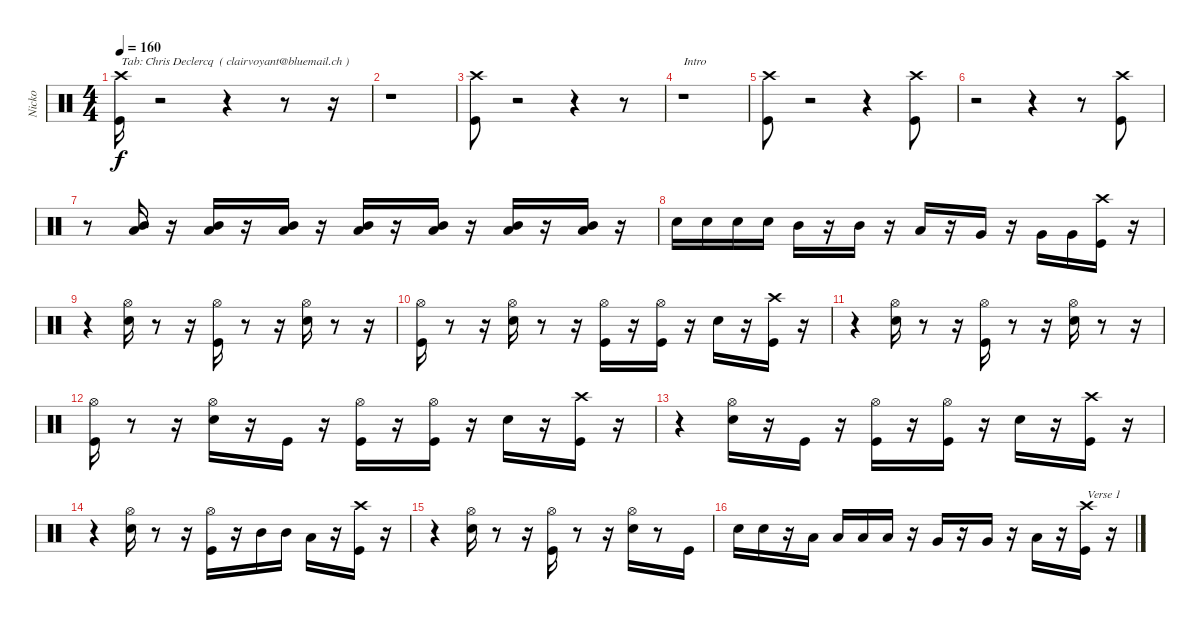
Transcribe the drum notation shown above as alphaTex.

\track ("Nicko" "Nicko") {instrument percussion}
\staff {score}
\articulation defaults
\ts (4 4)
\tempo 160
\clef neutral
\ks c
("Kick (hit)" "Crash high (hit)").16{txt "Tab: Chris Declercq  ( clairvoyant@bluemail.ch )" dy f} r.2 r.4 r.8 r.16 |
r.1 |
("Kick (hit)" "Crash high (hit)").8 r.2 r.4 r.8 |
r.1{txt "Intro"} |
("Kick (hit)" "Crash high (hit)").8 r.2 r.4 ("Kick (hit)" "Crash high (hit)").8 |
r.2 r.4 r.8 ("Kick (hit)" "Crash high (hit)").8 |
r.8 ("Low Tom (hit)" "Mid Tom (hit)").16 r.16 ("Low Tom (hit)" "Mid Tom (hit)").16 r.16 ("Low Tom (hit)" "Mid Tom (hit)").16 r.16 ("Low Tom (hit)" "Mid Tom (hit)").16 r.16 ("Low Tom (hit)" "Mid Tom (hit)").16 r.16 ("Low Tom (hit)" "Mid Tom (hit)").16 r.16 ("Low Tom (hit)" "Mid Tom (hit)").16 r.16 |
"Snare (hit) 2".16 "Snare (hit) 2".16 "Snare (hit) 2".16 "Snare (hit) 2".16 "Mid Tom (hit)".16 r.16 "Mid Tom (hit)".16 r.16 "Low Tom (hit)".16 r.16 "Very Low Tom (hit)".16 r.16 "Very Low Tom (hit)".16 "Very Low Tom (hit)".16 ("Kick (hit)" "Crash high (hit)").16 r.16 |
r.4 ("Hi-Hat (open)" "Snare (hit) 2").16 r.8 r.16 ("Hi-Hat (open)" "Kick (hit)").16 r.8 r.16 ("Hi-Hat (open)" "Snare (hit) 2").16 r.8 r.16 |
("Hi-Hat (open)" "Kick (hit)").16 r.8 r.16 ("Hi-Hat (open)" "Snare (hit) 2").16 r.8 r.16 ("Hi-Hat (open)" "Kick (hit)").16 r.16 ("Hi-Hat (open)" "Kick (hit)").16 r.16 "Snare (hit) 2".16 r.16 ("Kick (hit)" "Crash high (hit)").16 r.16 |
r.4 ("Snare (hit) 2" "Hi-Hat (open)").16 r.8 r.16 ("Hi-Hat (open)" "Kick (hit)").16 r.8 r.16 ("Hi-Hat (open)" "Snare (hit) 2").16 r.8 r.16 |
("Hi-Hat (open)" "Kick (hit)").16 r.8 r.16 ("Hi-Hat (open)" "Snare (hit) 2").16 r.16 "Kick (hit)".16 r.16 ("Hi-Hat (open)" "Kick (hit)").16 r.16 ("Hi-Hat (open)" "Kick (hit)").16 r.16 "Snare (hit) 2".16 r.16 ("Kick (hit)" "Crash high (hit)").16 r.16 |
r.4 ("Snare (hit) 2" "Hi-Hat (open)").16 r.16 "Kick (hit)".16 r.16 ("Hi-Hat (open)" "Kick (hit)").16 r.16 ("Hi-Hat (open)" "Kick (hit)").16 r.16 "Snare (hit) 2".16 r.16 ("Kick (hit)" "Crash high (hit)").16 r.16 |
r.4 ("Snare (hit) 2" "Hi-Hat (open)").16 r.8 r.16 ("Hi-Hat (open)" "Kick (hit)").16 r.16 "Mid Tom (hit)".16 "Mid Tom (hit)".16 "Low Tom (hit)".16 r.16 ("Kick (hit)" "Crash high (hit)").16 r.16 |
r.4 ("Hi-Hat (open)" "Snare (hit) 2").16 r.8 r.16 ("Hi-Hat (open)" "Kick (hit)").16 r.8 r.16 ("Hi-Hat (open)" "Snare (hit) 2").16 r.8 "Kick (hit)".16 |
"Electric Snare (hit)".16 "Electric Snare (hit)".16 r.16 "Low Tom (hit)".16 "Low Tom (hit)".16 "Low Tom (hit)".16 "Low Tom (hit)".16 r.16 "Very Low Tom (hit)".16 r.16 "Very Low Tom (hit)".16 r.16 "Low Floor Tom (hit)".16 r.16 ("Kick (hit)" "Crash high (hit)").16{txt "Verse 1"} r.16
